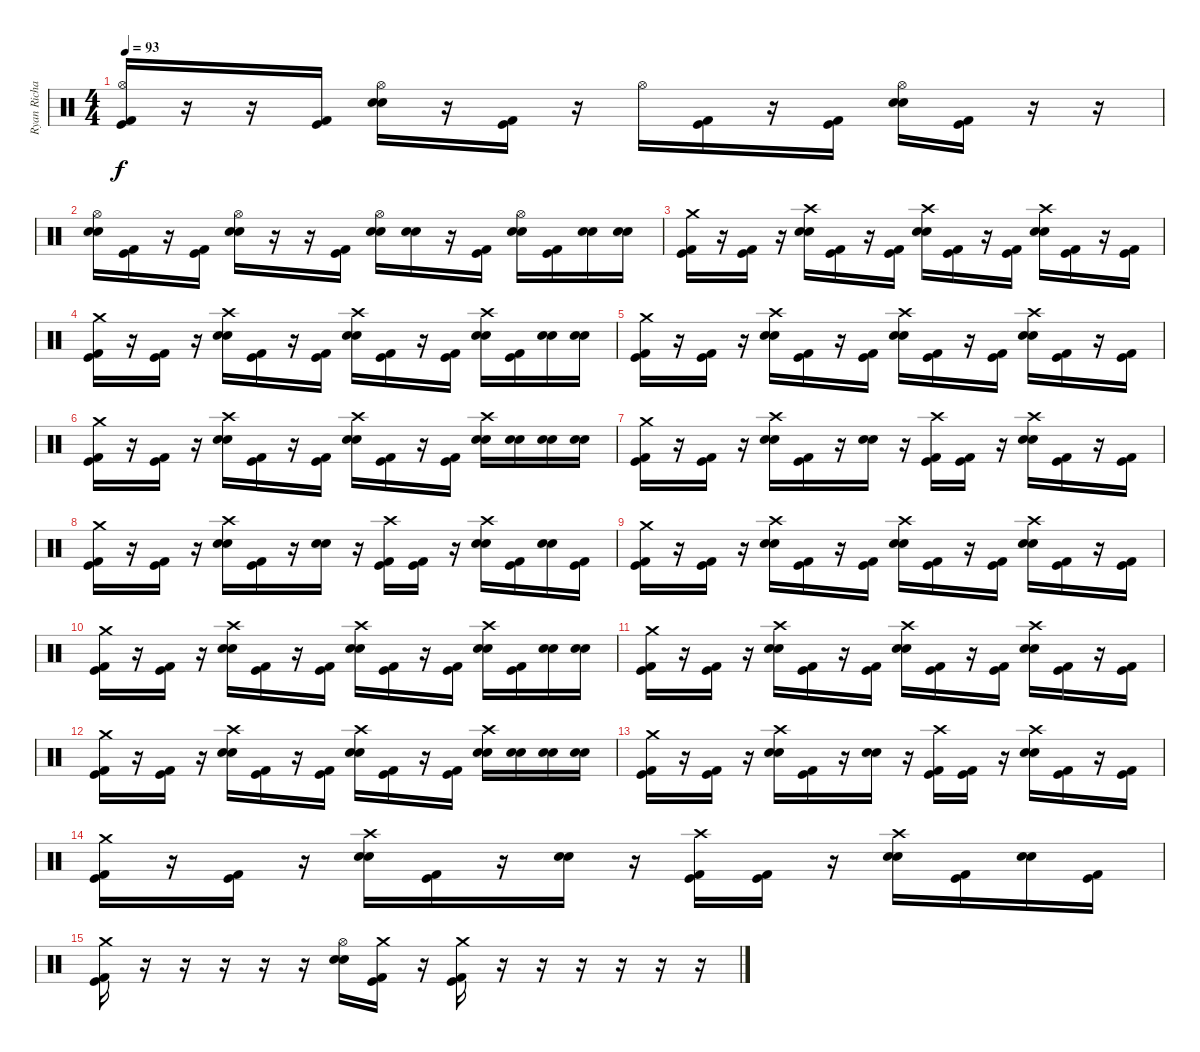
\track ("Ryan Richards" "Ryan Richa") {instrument percussion}
\staff {score}
\articulation defaults
\ts (4 4)
\tempo 93
\clef neutral
\ks c
("Kick (hit)" "Hi-Hat (open)" "Kick (hit) 2").16{dy f} r.16 r.16 ("Kick (hit)" "Kick (hit) 2").16 ("Snare (hit) 2" "Hi-Hat (open)" "Electric Snare (hit)").16 r.16 ("Kick (hit)" "Kick (hit) 2").16 r.16 "Hi-Hat (open)".16 ("Kick (hit)" "Kick (hit) 2").16 r.16 ("Kick (hit)" "Kick (hit) 2").16 ("Snare (hit) 2" "Hi-Hat (open)" "Electric Snare (hit)").16 ("Kick (hit)" "Kick (hit) 2").16 r.16 r.16 |
("Snare (hit) 2" "Hi-Hat (open)" "Electric Snare (hit)").16 ("Kick (hit)" "Kick (hit) 2").16 r.16 ("Kick (hit)" "Kick (hit) 2").16 ("Snare (hit) 2" "Hi-Hat (open)" "Electric Snare (hit)").16 r.16 r.16 ("Kick (hit)" "Kick (hit) 2").16 ("Snare (hit) 2" "Hi-Hat (open)" "Electric Snare (hit)").16 ("Snare (hit) 2" "Electric Snare (hit)").16 r.16 ("Kick (hit)" "Kick (hit) 2").16 ("Snare (hit) 2" "Hi-Hat (open)" "Electric Snare (hit)").16 ("Kick (hit)" "Kick (hit) 2").16 ("Snare (hit) 2" "Electric Snare (hit)").16 ("Snare (hit) 2" "Electric Snare (hit)").16 |
("Kick (hit)" "Crash medium (hit)" "Kick (hit) 2").16 r.16 ("Kick (hit)" "Kick (hit) 2").16 r.16 ("Snare (hit) 2" "Crash high (hit)" "Electric Snare (hit)").16 ("Kick (hit)" "Kick (hit) 2").16 r.16 ("Kick (hit)" "Kick (hit) 2").16 ("Snare (hit) 2" "Crash high (hit)" "Electric Snare (hit)").16 ("Kick (hit)" "Kick (hit) 2").16 r.16 ("Kick (hit)" "Kick (hit) 2").16 ("Snare (hit) 2" "Crash high (hit)" "Electric Snare (hit)").16 ("Kick (hit)" "Kick (hit) 2").16 r.16 ("Kick (hit)" "Kick (hit) 2").16 |
("Kick (hit)" "Crash medium (hit)" "Kick (hit) 2").16 r.16 ("Kick (hit)" "Kick (hit) 2").16 r.16 ("Snare (hit) 2" "Crash high (hit)" "Electric Snare (hit)").16 ("Kick (hit)" "Kick (hit) 2").16 r.16 ("Kick (hit)" "Kick (hit) 2").16 ("Snare (hit) 2" "Crash high (hit)" "Electric Snare (hit)").16 ("Kick (hit)" "Kick (hit) 2").16 r.16 ("Kick (hit)" "Kick (hit) 2").16 ("Snare (hit) 2" "Crash high (hit)" "Electric Snare (hit)").16 ("Kick (hit)" "Kick (hit) 2").16 ("Snare (hit) 2" "Electric Snare (hit)").16 ("Snare (hit) 2" "Electric Snare (hit)").16 |
("Kick (hit)" "Crash medium (hit)" "Kick (hit) 2").16 r.16 ("Kick (hit)" "Kick (hit) 2").16 r.16 ("Snare (hit) 2" "Crash high (hit)" "Electric Snare (hit)").16 ("Kick (hit)" "Kick (hit) 2").16 r.16 ("Kick (hit)" "Kick (hit) 2").16 ("Snare (hit) 2" "Crash high (hit)" "Electric Snare (hit)").16 ("Kick (hit)" "Kick (hit) 2").16 r.16 ("Kick (hit)" "Kick (hit) 2").16 ("Snare (hit) 2" "Crash high (hit)" "Electric Snare (hit)").16 ("Kick (hit)" "Kick (hit) 2").16 r.16 ("Kick (hit)" "Kick (hit) 2").16 |
("Kick (hit)" "Crash medium (hit)" "Kick (hit) 2").16 r.16 ("Kick (hit)" "Kick (hit) 2").16 r.16 ("Snare (hit) 2" "Crash high (hit)" "Electric Snare (hit)").16 ("Kick (hit)" "Kick (hit) 2").16 r.16 ("Kick (hit)" "Kick (hit) 2").16 ("Snare (hit) 2" "Crash high (hit)" "Electric Snare (hit)").16 ("Kick (hit)" "Kick (hit) 2").16 r.16 ("Kick (hit)" "Kick (hit) 2").16 ("Snare (hit) 2" "Crash high (hit)" "Electric Snare (hit)").16 ("Snare (hit) 2" "Electric Snare (hit)").16 ("Snare (hit) 2" "Electric Snare (hit)").16 ("Snare (hit) 2" "Electric Snare (hit)").16 |
("Kick (hit)" "Crash medium (hit)" "Kick (hit) 2").16 r.16 ("Kick (hit)" "Kick (hit) 2").16 r.16 ("Snare (hit) 2" "Crash high (hit)" "Electric Snare (hit)").16 ("Kick (hit)" "Kick (hit) 2").16 r.16 ("Snare (hit) 2" "Electric Snare (hit)").16 r.16 ("Kick (hit)" "Crash high (hit)" "Kick (hit) 2").16 ("Kick (hit)" "Kick (hit) 2").16 r.16 ("Snare (hit) 2" "Crash high (hit)" "Electric Snare (hit)").16 ("Kick (hit)" "Kick (hit) 2").16 r.16 ("Kick (hit)" "Kick (hit) 2").16 |
("Kick (hit)" "Crash medium (hit)" "Kick (hit) 2").16 r.16 ("Kick (hit)" "Kick (hit) 2").16 r.16 ("Snare (hit) 2" "Crash high (hit)" "Electric Snare (hit)").16 ("Kick (hit)" "Kick (hit) 2").16 r.16 ("Snare (hit) 2" "Electric Snare (hit)").16 r.16 ("Kick (hit)" "Crash high (hit)" "Kick (hit) 2").16 ("Kick (hit)" "Kick (hit) 2").16 r.16 ("Snare (hit) 2" "Crash high (hit)" "Electric Snare (hit)").16 ("Kick (hit)" "Kick (hit) 2").16 ("Snare (hit) 2" "Electric Snare (hit)").16 ("Kick (hit)" "Kick (hit) 2").16 |
("Kick (hit)" "Crash medium (hit)" "Kick (hit) 2").16 r.16 ("Kick (hit)" "Kick (hit) 2").16 r.16 ("Snare (hit) 2" "Crash high (hit)" "Electric Snare (hit)").16 ("Kick (hit)" "Kick (hit) 2").16 r.16 ("Kick (hit)" "Kick (hit) 2").16 ("Snare (hit) 2" "Crash high (hit)" "Electric Snare (hit)").16 ("Kick (hit)" "Kick (hit) 2").16 r.16 ("Kick (hit)" "Kick (hit) 2").16 ("Snare (hit) 2" "Crash high (hit)" "Electric Snare (hit)").16 ("Kick (hit)" "Kick (hit) 2").16 r.16 ("Kick (hit)" "Kick (hit) 2").16 |
("Kick (hit)" "Crash medium (hit)" "Kick (hit) 2").16 r.16 ("Kick (hit)" "Kick (hit) 2").16 r.16 ("Snare (hit) 2" "Crash high (hit)" "Electric Snare (hit)").16 ("Kick (hit)" "Kick (hit) 2").16 r.16 ("Kick (hit)" "Kick (hit) 2").16 ("Snare (hit) 2" "Crash high (hit)" "Electric Snare (hit)").16 ("Kick (hit)" "Kick (hit) 2").16 r.16 ("Kick (hit)" "Kick (hit) 2").16 ("Snare (hit) 2" "Crash high (hit)" "Electric Snare (hit)").16 ("Kick (hit)" "Kick (hit) 2").16 ("Snare (hit) 2" "Electric Snare (hit)").16 ("Snare (hit) 2" "Electric Snare (hit)").16 |
("Kick (hit)" "Crash medium (hit)" "Kick (hit) 2").16 r.16 ("Kick (hit)" "Kick (hit) 2").16 r.16 ("Snare (hit) 2" "Crash high (hit)" "Electric Snare (hit)").16 ("Kick (hit)" "Kick (hit) 2").16 r.16 ("Kick (hit)" "Kick (hit) 2").16 ("Snare (hit) 2" "Crash high (hit)" "Electric Snare (hit)").16 ("Kick (hit)" "Kick (hit) 2").16 r.16 ("Kick (hit)" "Kick (hit) 2").16 ("Snare (hit) 2" "Crash high (hit)" "Electric Snare (hit)").16 ("Kick (hit)" "Kick (hit) 2").16 r.16 ("Kick (hit)" "Kick (hit) 2").16 |
("Kick (hit)" "Crash medium (hit)" "Kick (hit) 2").16 r.16 ("Kick (hit)" "Kick (hit) 2").16 r.16 ("Snare (hit) 2" "Crash high (hit)" "Electric Snare (hit)").16 ("Kick (hit)" "Kick (hit) 2").16 r.16 ("Kick (hit)" "Kick (hit) 2").16 ("Snare (hit) 2" "Crash high (hit)" "Electric Snare (hit)").16 ("Kick (hit)" "Kick (hit) 2").16 r.16 ("Kick (hit)" "Kick (hit) 2").16 ("Snare (hit) 2" "Crash high (hit)" "Electric Snare (hit)").16 ("Snare (hit) 2" "Electric Snare (hit)").16 ("Snare (hit) 2" "Electric Snare (hit)").16 ("Snare (hit) 2" "Electric Snare (hit)").16 |
("Kick (hit)" "Crash medium (hit)" "Kick (hit) 2").16 r.16 ("Kick (hit)" "Kick (hit) 2").16 r.16 ("Snare (hit) 2" "Crash high (hit)" "Electric Snare (hit)").16 ("Kick (hit)" "Kick (hit) 2").16 r.16 ("Snare (hit) 2" "Electric Snare (hit)").16 r.16 ("Kick (hit)" "Crash high (hit)" "Kick (hit) 2").16 ("Kick (hit)" "Kick (hit) 2").16 r.16 ("Snare (hit) 2" "Crash high (hit)" "Electric Snare (hit)").16 ("Kick (hit)" "Kick (hit) 2").16 r.16 ("Kick (hit)" "Kick (hit) 2").16 |
("Kick (hit)" "Crash medium (hit)" "Kick (hit) 2").16 r.16 ("Kick (hit)" "Kick (hit) 2").16 r.16 ("Snare (hit) 2" "Crash high (hit)" "Electric Snare (hit)").16 ("Kick (hit)" "Kick (hit) 2").16 r.16 ("Snare (hit) 2" "Electric Snare (hit)").16 r.16 ("Kick (hit)" "Crash high (hit)" "Kick (hit) 2").16 ("Kick (hit)" "Kick (hit) 2").16 r.16 ("Snare (hit) 2" "Crash high (hit)" "Electric Snare (hit)").16 ("Kick (hit)" "Kick (hit) 2").16 ("Snare (hit) 2" "Electric Snare (hit)").16 ("Kick (hit)" "Kick (hit) 2").16 |
("Kick (hit)" "Crash medium (hit)" "Kick (hit) 2").16 r.16 r.16 r.16 r.16 r.16 ("Snare (hit) 2" "Hi-Hat (open)" "Electric Snare (hit)").16 ("Kick (hit)" "Crash medium (hit)" "Kick (hit) 2").16 r.16 ("Kick (hit)" "Crash medium (hit)" "Kick (hit) 2").16 r.16 r.16 r.16 r.16 r.16 r.16
